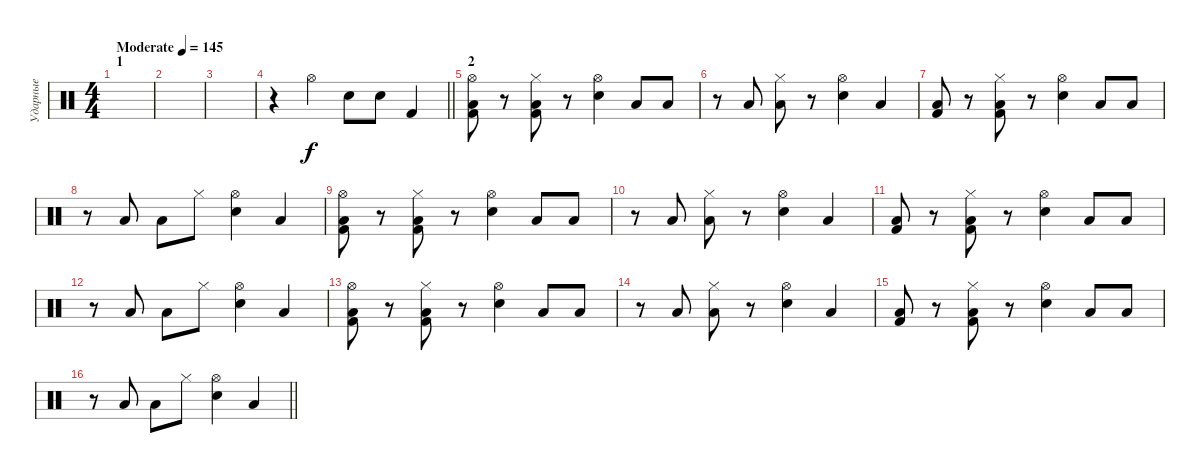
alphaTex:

\track ("Ударные" "Ударные") {instrument percussion}
\staff {score}
\articulation defaults
\ts (4 4)
\section ("" "1")
\tempo (145 "Moderate")
\clef neutral
\ks c
|
|
|
\barLineRight lightlight
r.4 "Hi-Hat (open)".4 "Snare (hit) 2".8 "Snare (hit) 2".8 "Kick (hit) 2".4 |
\section ("" "2")
("Hi-Hat (open)" "Low Floor Tom (hit)" "Kick (hit) 2").8 r.8 ("Hi-Hat (closed)" "Low Floor Tom (hit)" "Kick (hit) 2").8 r.8 ("Hi-Hat (open)" "Snare (hit) 2").4 "Low Floor Tom (hit)".8 "Low Floor Tom (hit)".8 |
r.8 "Low Floor Tom (hit)".8 ("Hi-Hat (closed)" "Low Floor Tom (hit)").8 r.8 ("Hi-Hat (open)" "Snare (hit) 2").4 "Low Floor Tom (hit)".4 |
("Low Floor Tom (hit)" "Kick (hit) 2").8 r.8 ("Hi-Hat (closed)" "Low Floor Tom (hit)" "Kick (hit) 2").8 r.8 ("Hi-Hat (open)" "Snare (hit) 2").4 "Low Floor Tom (hit)".8 "Low Floor Tom (hit)".8 |
r.8 "Low Floor Tom (hit)".8 "Low Floor Tom (hit)".8 "Hi-Hat (closed)".8 ("Hi-Hat (open)" "Snare (hit) 2").4 "Low Floor Tom (hit)".4 |
("Hi-Hat (open)" "Low Floor Tom (hit)" "Kick (hit) 2").8 r.8 ("Hi-Hat (closed)" "Low Floor Tom (hit)" "Kick (hit) 2").8 r.8 ("Hi-Hat (open)" "Snare (hit) 2").4 "Low Floor Tom (hit)".8 "Low Floor Tom (hit)".8 |
r.8 "Low Floor Tom (hit)".8 ("Hi-Hat (closed)" "Low Floor Tom (hit)").8 r.8 ("Hi-Hat (open)" "Snare (hit) 2").4 "Low Floor Tom (hit)".4 |
("Low Floor Tom (hit)" "Kick (hit) 2").8 r.8 ("Hi-Hat (closed)" "Low Floor Tom (hit)" "Kick (hit) 2").8 r.8 ("Hi-Hat (open)" "Snare (hit) 2").4 "Low Floor Tom (hit)".8 "Low Floor Tom (hit)".8 |
r.8 "Low Floor Tom (hit)".8 "Low Floor Tom (hit)".8 "Hi-Hat (closed)".8 ("Hi-Hat (open)" "Snare (hit) 2").4 "Low Floor Tom (hit)".4 |
("Hi-Hat (open)" "Low Floor Tom (hit)" "Kick (hit) 2").8 r.8 ("Hi-Hat (closed)" "Low Floor Tom (hit)" "Kick (hit) 2").8 r.8 ("Hi-Hat (open)" "Snare (hit) 2").4 "Low Floor Tom (hit)".8 "Low Floor Tom (hit)".8 |
r.8 "Low Floor Tom (hit)".8 ("Hi-Hat (closed)" "Low Floor Tom (hit)").8 r.8 ("Hi-Hat (open)" "Snare (hit) 2").4 "Low Floor Tom (hit)".4 |
("Low Floor Tom (hit)" "Kick (hit) 2").8 r.8 ("Hi-Hat (closed)" "Low Floor Tom (hit)" "Kick (hit) 2").8 r.8 ("Hi-Hat (open)" "Snare (hit) 2").4 "Low Floor Tom (hit)".8 "Low Floor Tom (hit)".8 |
\barLineRight lightlight
r.8 "Low Floor Tom (hit)".8 "Low Floor Tom (hit)".8 "Hi-Hat (closed)".8 ("Hi-Hat (open)" "Snare (hit) 2").4 "Low Floor Tom (hit)".4
